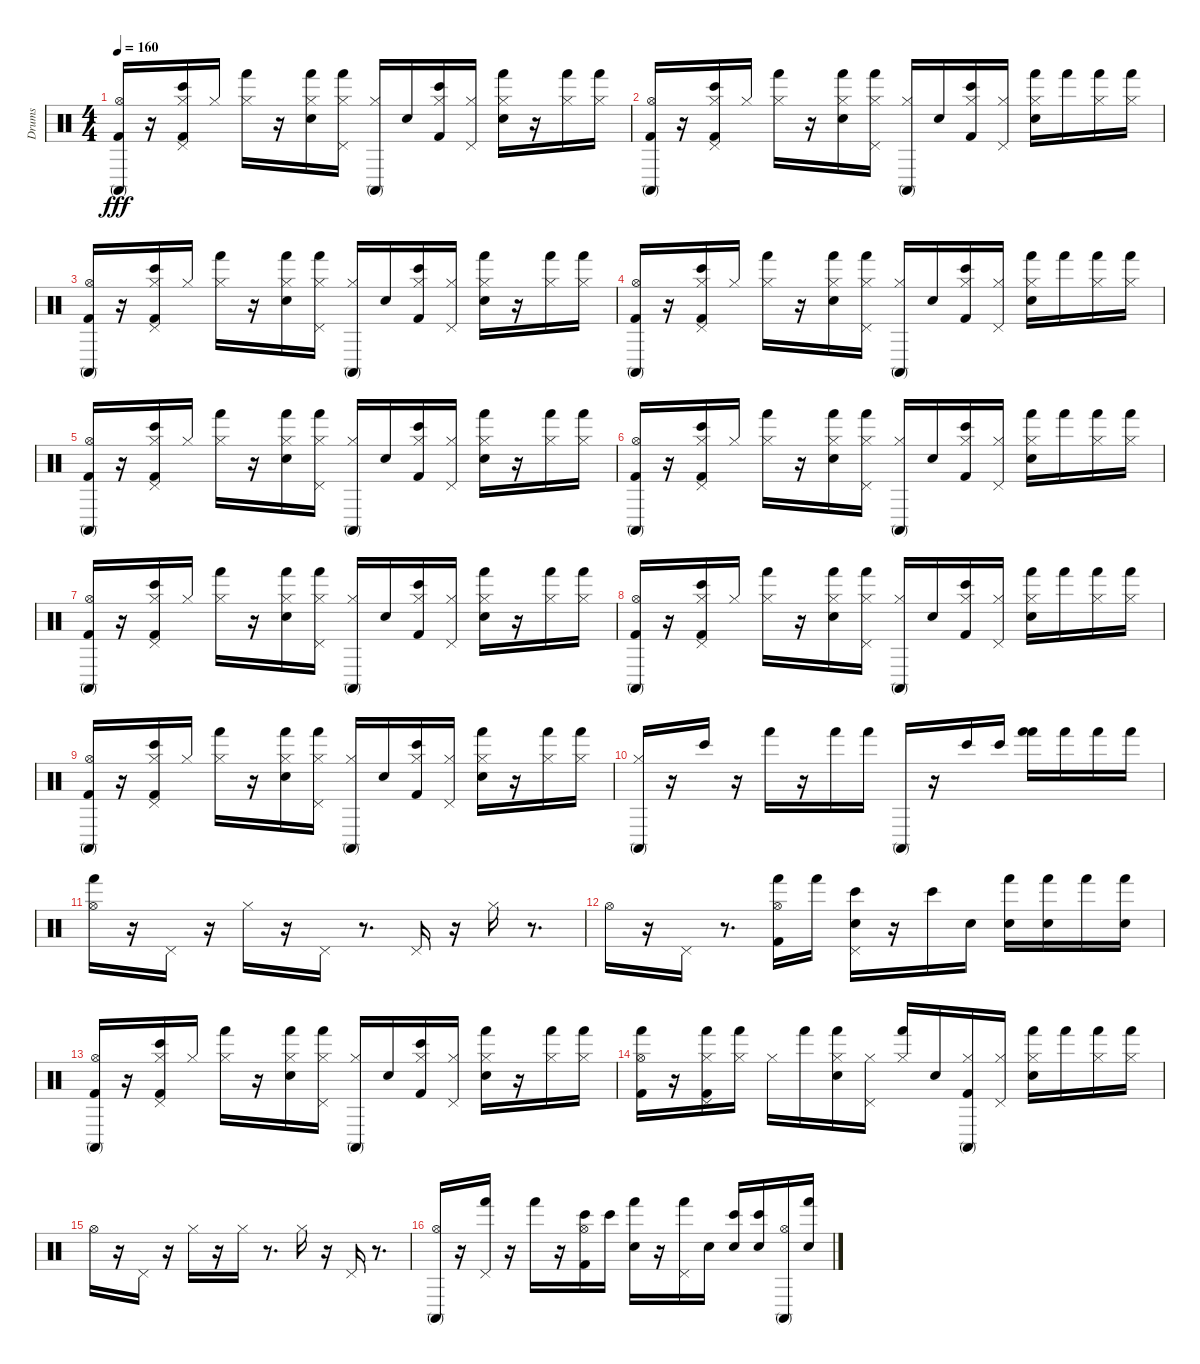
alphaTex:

\track ("Drums" "Drums") {instrument percussion}
\staff {score}
\articulation defaults
\ts (4 4)
\tempo 160
\clef neutral
\ks c
("Conga high (mute)" "Kick (hit) 2" "Hi-Hat (open)").16{dy fff} r.16 ("Hi-Hat (closed)" "Pedal Hi-Hat (hit)" "Bongo High (hit)" "Kick (hit) 2").16 "Hi-Hat (closed)".16 ("Hand (hit)" "Hi-Hat (closed)").16 r.16 ("Hand (hit)" "Hi-Hat (closed)" "Electric Snare (hit)").16 ("Hi-Hat (closed)" "Pedal Hi-Hat (hit)" "Hand (hit)").16 ("Hi-Hat (closed)" "Conga high (mute)").16 "Electric Snare (hit)".16 ("Bongo High (hit)" "Kick (hit) 2" "Hi-Hat (closed)").16 ("Pedal Hi-Hat (hit)" "Hi-Hat (closed)").16 ("Hi-Hat (closed)" "Electric Snare (hit)" "Hand (hit)").16 r.16 ("Hand (hit)" "Hi-Hat (closed)").16 ("Hi-Hat (closed)" "Hand (hit)").16 |
("Hi-Hat (open)" "Kick (hit) 2" "Conga high (mute)").16 r.16 ("Kick (hit) 2" "Hi-Hat (closed)" "Pedal Hi-Hat (hit)" "Bongo High (hit)").16 "Hi-Hat (closed)".16 ("Hi-Hat (closed)" "Hand (hit)").16 r.16 ("Electric Snare (hit)" "Hi-Hat (closed)" "Hand (hit)").16 ("Pedal Hi-Hat (hit)" "Hand (hit)" "Hi-Hat (closed)").16 ("Conga high (mute)" "Hi-Hat (closed)").16 "Electric Snare (hit)".16 ("Hi-Hat (closed)" "Bongo High (hit)" "Kick (hit) 2").16 ("Pedal Hi-Hat (hit)" "Hi-Hat (closed)").16 ("Electric Snare (hit)" "Hi-Hat (closed)" "Hand (hit)").16 "Hand (hit)".16 ("Hand (hit)" "Hi-Hat (closed)").16 ("Hand (hit)" "Hi-Hat (closed)").16 |
("Hi-Hat (open)" "Conga high (mute)" "Kick (hit) 2").16 r.16 ("Kick (hit) 2" "Hi-Hat (closed)" "Pedal Hi-Hat (hit)" "Bongo High (hit)").16 "Hi-Hat (closed)".16 ("Hi-Hat (closed)" "Hand (hit)").16 r.16 ("Hand (hit)" "Electric Snare (hit)" "Hi-Hat (closed)").16 ("Hi-Hat (closed)" "Pedal Hi-Hat (hit)" "Hand (hit)").16 ("Hi-Hat (closed)" "Conga high (mute)").16 "Electric Snare (hit)".16 ("Kick (hit) 2" "Hi-Hat (closed)" "Bongo High (hit)").16 ("Hi-Hat (closed)" "Pedal Hi-Hat (hit)").16 ("Hi-Hat (closed)" "Electric Snare (hit)" "Hand (hit)").16 r.16 ("Hand (hit)" "Hi-Hat (closed)").16 ("Hi-Hat (closed)" "Hand (hit)").16 |
("Hi-Hat (open)" "Conga high (mute)" "Kick (hit) 2").16 r.16 ("Hi-Hat (closed)" "Pedal Hi-Hat (hit)" "Kick (hit) 2" "Bongo High (hit)").16 "Hi-Hat (closed)".16 ("Hi-Hat (closed)" "Hand (hit)").16 r.16 ("Hand (hit)" "Hi-Hat (closed)" "Electric Snare (hit)").16 ("Pedal Hi-Hat (hit)" "Hi-Hat (closed)" "Hand (hit)").16 ("Conga high (mute)" "Hi-Hat (closed)").16 "Electric Snare (hit)".16 ("Hi-Hat (closed)" "Kick (hit) 2" "Bongo High (hit)").16 ("Pedal Hi-Hat (hit)" "Hi-Hat (closed)").16 ("Hand (hit)" "Electric Snare (hit)" "Hi-Hat (closed)").16 "Hand (hit)".16 ("Hand (hit)" "Hi-Hat (closed)").16 ("Hand (hit)" "Hi-Hat (closed)").16 |
("Conga high (mute)" "Hi-Hat (open)" "Kick (hit) 2").16 r.16 ("Pedal Hi-Hat (hit)" "Bongo High (hit)" "Hi-Hat (closed)" "Kick (hit) 2").16 "Hi-Hat (closed)".16 ("Hand (hit)" "Hi-Hat (closed)").16 r.16 ("Electric Snare (hit)" "Hand (hit)" "Hi-Hat (closed)").16 ("Hi-Hat (closed)" "Hand (hit)" "Pedal Hi-Hat (hit)").16 ("Hi-Hat (closed)" "Conga high (mute)").16 "Electric Snare (hit)".16 ("Kick (hit) 2" "Hi-Hat (closed)" "Bongo High (hit)").16 ("Hi-Hat (closed)" "Pedal Hi-Hat (hit)").16 ("Hi-Hat (closed)" "Hand (hit)" "Electric Snare (hit)").16 r.16 ("Hi-Hat (closed)" "Hand (hit)").16 ("Hi-Hat (closed)" "Hand (hit)").16 |
("Kick (hit) 2" "Hi-Hat (open)" "Conga high (mute)").16 r.16 ("Bongo High (hit)" "Hi-Hat (closed)" "Kick (hit) 2" "Pedal Hi-Hat (hit)").16 "Hi-Hat (closed)".16 ("Hand (hit)" "Hi-Hat (closed)").16 r.16 ("Hi-Hat (closed)" "Hand (hit)" "Electric Snare (hit)").16 ("Hand (hit)" "Hi-Hat (closed)" "Pedal Hi-Hat (hit)").16 ("Hi-Hat (closed)" "Conga high (mute)").16 "Electric Snare (hit)".16 ("Bongo High (hit)" "Hi-Hat (closed)" "Kick (hit) 2").16 ("Pedal Hi-Hat (hit)" "Hi-Hat (closed)").16 ("Electric Snare (hit)" "Hi-Hat (closed)" "Hand (hit)").16 "Hand (hit)".16 ("Hi-Hat (closed)" "Hand (hit)").16 ("Hand (hit)" "Hi-Hat (closed)").16 |
("Kick (hit) 2" "Conga high (mute)" "Hi-Hat (open)").16 r.16 ("Hi-Hat (closed)" "Pedal Hi-Hat (hit)" "Bongo High (hit)" "Kick (hit) 2").16 "Hi-Hat (closed)".16 ("Hi-Hat (closed)" "Hand (hit)").16 r.16 ("Electric Snare (hit)" "Hand (hit)" "Hi-Hat (closed)").16 ("Pedal Hi-Hat (hit)" "Hand (hit)" "Hi-Hat (closed)").16 ("Conga high (mute)" "Hi-Hat (closed)").16 "Electric Snare (hit)".16 ("Bongo High (hit)" "Hi-Hat (closed)" "Kick (hit) 2").16 ("Pedal Hi-Hat (hit)" "Hi-Hat (closed)").16 ("Electric Snare (hit)" "Hi-Hat (closed)" "Hand (hit)").16 r.16 ("Hand (hit)" "Hi-Hat (closed)").16 ("Hand (hit)" "Hi-Hat (closed)").16 |
("Kick (hit) 2" "Conga high (mute)" "Hi-Hat (open)").16 r.16 ("Hi-Hat (closed)" "Pedal Hi-Hat (hit)" "Bongo High (hit)" "Kick (hit) 2").16 "Hi-Hat (closed)".16 ("Hand (hit)" "Hi-Hat (closed)").16 r.16 ("Electric Snare (hit)" "Hand (hit)" "Hi-Hat (closed)").16 ("Hand (hit)" "Pedal Hi-Hat (hit)" "Hi-Hat (closed)").16 ("Conga high (mute)" "Hi-Hat (closed)").16 "Electric Snare (hit)".16 ("Kick (hit) 2" "Hi-Hat (closed)" "Bongo High (hit)").16 ("Hi-Hat (closed)" "Pedal Hi-Hat (hit)").16 ("Hand (hit)" "Electric Snare (hit)" "Hi-Hat (closed)").16 "Hand (hit)".16 ("Hand (hit)" "Hi-Hat (closed)").16 ("Hand (hit)" "Hi-Hat (closed)").16 |
("Conga high (mute)" "Kick (hit) 2" "Hi-Hat (open)").16 r.16 ("Pedal Hi-Hat (hit)" "Hi-Hat (closed)" "Bongo High (hit)" "Kick (hit) 2").16 "Hi-Hat (closed)".16 ("Hand (hit)" "Hi-Hat (closed)").16 r.16 ("Hi-Hat (closed)" "Hand (hit)" "Electric Snare (hit)").16 ("Hi-Hat (closed)" "Hand (hit)" "Pedal Hi-Hat (hit)").16 ("Conga high (mute)" "Hi-Hat (closed)").16 "Electric Snare (hit)".16 ("Hi-Hat (closed)" "Bongo High (hit)" "Kick (hit) 2").16 ("Pedal Hi-Hat (hit)" "Hi-Hat (closed)").16 ("Hand (hit)" "Electric Snare (hit)" "Hi-Hat (closed)").16 r.16 ("Hand (hit)" "Hi-Hat (closed)").16 ("Hand (hit)" "Hi-Hat (closed)").16 |
("Conga high (mute)" "Hi-Hat (closed)").16 r.16 "Bongo High (hit)".16 r.16 "Hand (hit)".16 r.16 "Hand (hit)".16 "Hand (hit)".16 "Conga high (mute)".16 r.16 "Bongo High (hit)".16 "Bongo High (hit)".16 ("Hand (hit)" "Hand (hit)").16 "Hand (hit)".16 "Hand (hit)".16 "Hand (hit)".16 |
("Hand (hit)" "Hi-Hat (open)").16 r.16 "Pedal Hi-Hat (hit)".16 r.16 "Hi-Hat (closed)".16 r.16 "Pedal Hi-Hat (hit)".16 r.8{d} "Pedal Hi-Hat (hit)".16 r.16 "Hi-Hat (closed)".16 r.8{d} |
"Hi-Hat (open)".16 r.16 "Pedal Hi-Hat (hit)".16 r.8{d} ("Kick (hit) 2" "Hi-Hat (open)" "Hand (hit)").16 "Hand (hit)".16 ("Bongo High (hit)" "Pedal Hi-Hat (hit)" "Electric Snare (hit)").16 r.16 "Bongo High (hit)".16 "Electric Snare (hit)".16 ("Electric Snare (hit)" "Hand (hit)").16 ("Electric Snare (hit)" "Hand (hit)").16 "Hand (hit)".16 ("Hand (hit)" "Electric Snare (hit)").16 |
("Kick (hit) 2" "Conga high (mute)" "Hi-Hat (open)").16 r.16 ("Kick (hit) 2" "Hi-Hat (closed)" "Pedal Hi-Hat (hit)" "Bongo High (hit)").16 "Hi-Hat (closed)".16 ("Hi-Hat (closed)" "Hand (hit)").16 r.16 ("Electric Snare (hit)" "Hand (hit)" "Hi-Hat (closed)").16 ("Pedal Hi-Hat (hit)" "Hand (hit)" "Hi-Hat (closed)").16 ("Conga high (mute)" "Hi-Hat (closed)").16 "Electric Snare (hit)".16 ("Kick (hit) 2" "Bongo High (hit)" "Hi-Hat (closed)").16 ("Hi-Hat (closed)" "Pedal Hi-Hat (hit)").16 ("Hi-Hat (closed)" "Hand (hit)" "Electric Snare (hit)").16 r.16 ("Hi-Hat (closed)" "Hand (hit)").16 ("Hand (hit)" "Hi-Hat (closed)").16 |
("Kick (hit) 2" "Hi-Hat (open)" "Hand (hit)").16 r.16 ("Pedal Hi-Hat (hit)" "Hand (hit)" "Hi-Hat (closed)" "Kick (hit) 2").16 ("Hi-Hat (closed)" "Hand (hit)").16 "Hi-Hat (closed)".16 "Hand (hit)".16 ("Hi-Hat (closed)" "Hand (hit)" "Electric Snare (hit)").16 ("Pedal Hi-Hat (hit)" "Hi-Hat (closed)").16 ("Hand (hit)" "Hi-Hat (closed)").16 "Electric Snare (hit)".16 ("Hi-Hat (closed)" "Kick (hit) 2" "Conga high (mute)").16 ("Pedal Hi-Hat (hit)" "Hi-Hat (closed)").16 ("Hand (hit)" "Hi-Hat (closed)" "Electric Snare (hit)").16 "Hand (hit)".16 ("Hi-Hat (closed)" "Hand (hit)").16 ("Hi-Hat (closed)" "Hand (hit)").16 |
"Hi-Hat (open)".16 r.16 "Pedal Hi-Hat (hit)".16 r.16 "Hi-Hat (closed)".16 r.16 "Hi-Hat (closed)".16 r.8{d} "Hi-Hat (closed)".16 r.16 "Pedal Hi-Hat (hit)".16 r.8{d} |
("Hi-Hat (open)" "Conga high (mute)").16 r.16 ("Pedal Hi-Hat (hit)" "Hand (hit)").16 r.16 "Hand (hit)".16 r.16 ("Hi-Hat (open)" "Kick (hit) 2" "Bongo High (hit)").16 "Bongo High (hit)".16 ("Electric Snare (hit)" "Hand (hit)").16 r.16 ("Pedal Hi-Hat (hit)" "Hand (hit)").16 "Electric Snare (hit)".16 ("Electric Snare (hit)" "Bongo High (hit)").16 ("Bongo High (hit)" "Electric Snare (hit)").16 ("Conga high (mute)" "Hi-Hat (open)").16 ("Electric Snare (hit)" "Hand (hit)").16
